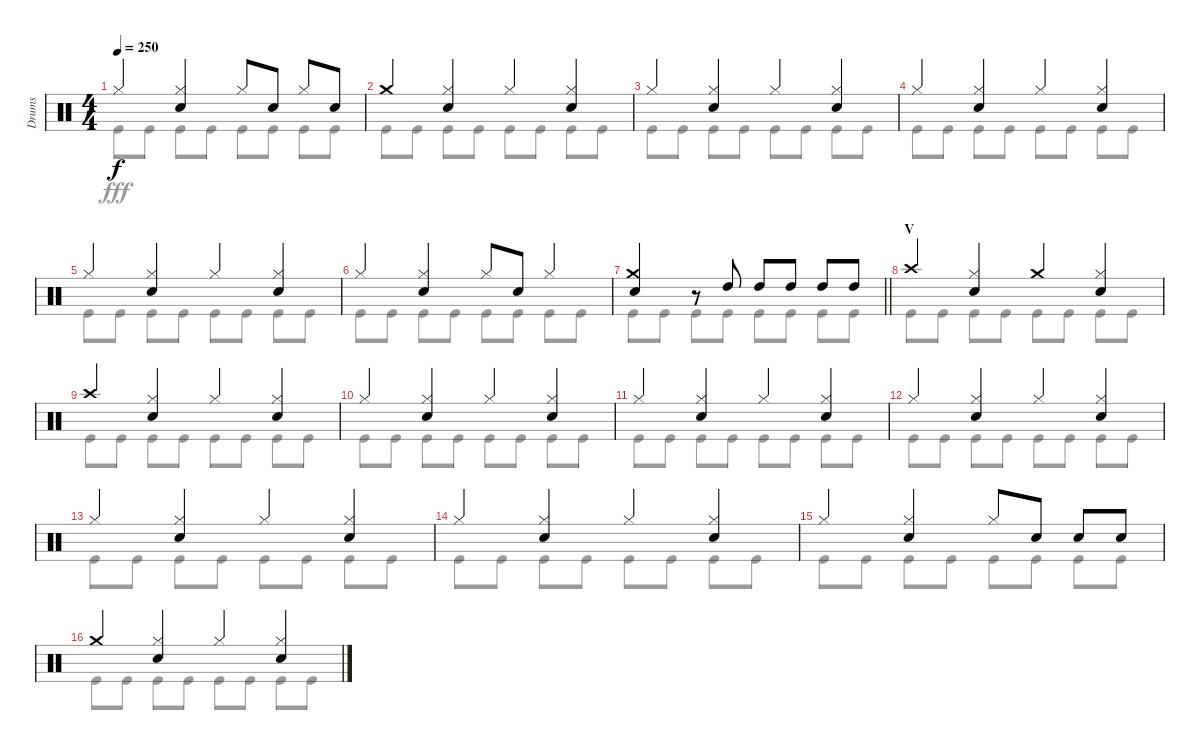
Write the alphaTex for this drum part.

\track ("Drums" "Drums") {instrument percussion}
\staff {score}
\articulation defaults
\voice
\ts (4 4)
\tempo 250
\clef neutral
\ks c "Hi-Hat (closed)".4{dy f}
("Hi-Hat (closed)" "Snare (hit) 2").4 "Hi-Hat (closed)".8 "Snare (hit) 2".8 "Hi-Hat (closed)".8 "Snare (hit) 2".8 |
"Crash medium (hit)".4 ("Hi-Hat (closed)" "Snare (hit) 2").4 "Hi-Hat (closed)".4 ("Hi-Hat (closed)" "Snare (hit) 2").4 |
"Hi-Hat (closed)".4 ("Hi-Hat (closed)" "Snare (hit) 2").4 "Hi-Hat (closed)".4 ("Hi-Hat (closed)" "Snare (hit) 2").4 |
"Hi-Hat (closed)".4 ("Hi-Hat (closed)" "Snare (hit) 2").4 "Hi-Hat (closed)".4 ("Hi-Hat (closed)" "Snare (hit) 2").4 |
"Hi-Hat (closed)".4 ("Hi-Hat (closed)" "Snare (hit) 2").4 "Hi-Hat (closed)".4 ("Hi-Hat (closed)" "Snare (hit) 2").4 |
"Hi-Hat (closed)".4 ("Hi-Hat (closed)" "Snare (hit) 2").4 "Hi-Hat (closed)".8 "Snare (hit) 2".8 "Hi-Hat (closed)".4 |
\barLineRight lightlight
("Crash medium (hit)" "Snare (hit) 2").4 r.8 "High Tom (hit)".8 "High Tom (hit)".8 "High Tom (hit)".8 "High Tom (hit)".8 "High Tom (hit)".8 |
\section ("" "V")
"Crash high (hit)".4 ("Hi-Hat (closed)" "Snare (hit) 2").4 "Crash medium (hit)".4 ("Hi-Hat (closed)" "Snare (hit) 2").4 |
"Crash high (hit)".4 ("Hi-Hat (closed)" "Snare (hit) 2").4 "Hi-Hat (closed)".4 ("Hi-Hat (closed)" "Snare (hit) 2").4 |
"Hi-Hat (closed)".4 ("Hi-Hat (closed)" "Snare (hit) 2").4 "Hi-Hat (closed)".4 ("Hi-Hat (closed)" "Snare (hit) 2").4 |
"Hi-Hat (closed)".4 ("Hi-Hat (closed)" "Snare (hit) 2").4 "Hi-Hat (closed)".4 ("Hi-Hat (closed)" "Snare (hit) 2").4 |
"Hi-Hat (closed)".4 ("Hi-Hat (closed)" "Snare (hit) 2").4 "Hi-Hat (closed)".4 ("Hi-Hat (closed)" "Snare (hit) 2").4 |
"Hi-Hat (closed)".4 ("Hi-Hat (closed)" "Snare (hit) 2").4 "Hi-Hat (closed)".4 ("Hi-Hat (closed)" "Snare (hit) 2").4 |
"Hi-Hat (closed)".4 ("Hi-Hat (closed)" "Snare (hit) 2").4 "Hi-Hat (closed)".4 ("Hi-Hat (closed)" "Snare (hit) 2").4 |
"Hi-Hat (closed)".4 ("Hi-Hat (closed)" "Snare (hit) 2").4 "Hi-Hat (closed)".8 "Snare (hit) 2".8 "Snare (hit) 2".8 "Snare (hit) 2".8 |
"Crash medium (hit)".4 ("Hi-Hat (closed)" "Snare (hit) 2").4 "Hi-Hat (closed)".4 ("Hi-Hat (closed)" "Snare (hit) 2").4
\voice
\clef neutral
\ottava regular
\simile none
\ks c "Kick (hit)".8{dy fff} "Kick (hit)".8 "Kick (hit)".8 "Kick (hit)".8 "Kick (hit)".8 "Kick (hit)".8 "Kick (hit)".8 "Kick (hit)".8
|
"Kick (hit)".8 "Kick (hit)".8 "Kick (hit)".8 "Kick (hit)".8 "Kick (hit)".8 "Kick (hit)".8 "Kick (hit)".8 "Kick (hit)".8 |
"Kick (hit)".8 "Kick (hit)".8 "Kick (hit)".8 "Kick (hit)".8 "Kick (hit)".8 "Kick (hit)".8 "Kick (hit)".8 "Kick (hit)".8 |
"Kick (hit)".8 "Kick (hit)".8 "Kick (hit)".8 "Kick (hit)".8 "Kick (hit)".8 "Kick (hit)".8 "Kick (hit)".8 "Kick (hit)".8 |
"Kick (hit)".8 "Kick (hit)".8 "Kick (hit)".8 "Kick (hit)".8 "Kick (hit)".8 "Kick (hit)".8 "Kick (hit)".8 "Kick (hit)".8 |
"Kick (hit)".8 "Kick (hit)".8 "Kick (hit)".8 "Kick (hit)".8 "Kick (hit)".8 "Kick (hit)".8 "Kick (hit)".8 "Kick (hit)".8 |
\barLineRight lightlight "Kick (hit)".8 "Kick (hit)".8 "Kick (hit)".8 "Kick (hit)".8 "Kick (hit)".8 "Kick (hit)".8 "Kick (hit)".8 "Kick (hit)".8
|
"Kick (hit)".8 "Kick (hit)".8 "Kick (hit)".8 "Kick (hit)".8 "Kick (hit)".8 "Kick (hit)".8 "Kick (hit)".8 "Kick (hit)".8 |
"Kick (hit)".8 "Kick (hit)".8 "Kick (hit)".8 "Kick (hit)".8 "Kick (hit)".8 "Kick (hit)".8 "Kick (hit)".8 "Kick (hit)".8 |
"Kick (hit)".8 "Kick (hit)".8 "Kick (hit)".8 "Kick (hit)".8 "Kick (hit)".8 "Kick (hit)".8 "Kick (hit)".8 "Kick (hit)".8 |
"Kick (hit)".8 "Kick (hit)".8 "Kick (hit)".8 "Kick (hit)".8 "Kick (hit)".8 "Kick (hit)".8 "Kick (hit)".8 "Kick (hit)".8 |
"Kick (hit)".8 "Kick (hit)".8 "Kick (hit)".8 "Kick (hit)".8 "Kick (hit)".8 "Kick (hit)".8 "Kick (hit)".8 "Kick (hit)".8 |
"Kick (hit)".8 "Kick (hit)".8 "Kick (hit)".8 "Kick (hit)".8 "Kick (hit)".8 "Kick (hit)".8 "Kick (hit)".8 "Kick (hit)".8 |
"Kick (hit)".8 "Kick (hit)".8 "Kick (hit)".8 "Kick (hit)".8 "Kick (hit)".8 "Kick (hit)".8 "Kick (hit)".8 "Kick (hit)".8 |
"Kick (hit)".8 "Kick (hit)".8 "Kick (hit)".8 "Kick (hit)".8 "Kick (hit)".8 "Kick (hit)".8 "Kick (hit)".8 "Kick (hit)".8 |
"Kick (hit)".8 "Kick (hit)".8 "Kick (hit)".8 "Kick (hit)".8 "Kick (hit)".8 "Kick (hit)".8 "Kick (hit)".8 "Kick (hit)".8
